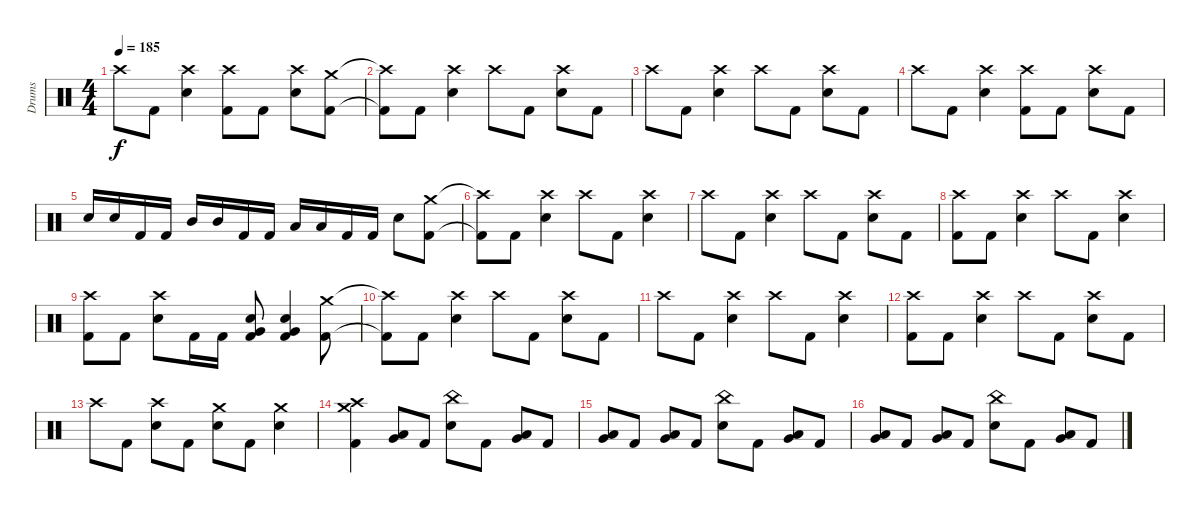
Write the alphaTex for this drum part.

\track ("Drums" "Drums") {instrument percussion}
\staff {score}
\articulation defaults
\ts (4 4)
\tempo 185
\clef neutral
\ks c "Crash high (hit)".8{dy f} "Kick (hit) 2".8
("Crash high (hit)" "Electric Snare (hit)").4 ("Crash high (hit)" "Kick (hit) 2").8 "Kick (hit) 2".8 ("Crash high (hit)" "Electric Snare (hit)").8 ("Crash medium (hit)" "Kick (hit) 2").8 |
("Crash high (hit)"{t} "Kick (hit) 2"{t}).8 "Kick (hit) 2".8 ("Crash high (hit)" "Electric Snare (hit)").4 "Crash high (hit)".8 "Kick (hit) 2".8 ("Crash high (hit)" "Electric Snare (hit)").8 "Kick (hit) 2".8 |
"Crash high (hit)".8 "Kick (hit) 2".8 ("Crash high (hit)" "Electric Snare (hit)").4 "Crash high (hit)".8 "Kick (hit) 2".8 ("Crash high (hit)" "Electric Snare (hit)").8 "Kick (hit) 2".8 |
"Crash high (hit)".8 "Kick (hit) 2".8 ("Crash high (hit)" "Electric Snare (hit)").4 ("Crash high (hit)" "Kick (hit) 2").8 "Kick (hit) 2".8 ("Crash high (hit)" "Electric Snare (hit)").8 "Kick (hit) 2".8 |
"Electric Snare (hit)".16 "Electric Snare (hit)".16 "Kick (hit) 2".16 "Kick (hit) 2".16 "Mid Tom (hit)".16 "Mid Tom (hit)".16 "Kick (hit) 2".16 "Kick (hit) 2".16 "Low Tom (hit)".16 "Low Tom (hit)".16 "Kick (hit) 2".16 "Kick (hit) 2".16 "Electric Snare (hit)".8 ("Crash medium (hit)" "Kick (hit) 2").8 |
("Crash high (hit)"{t} "Kick (hit) 2"{t}).8 "Kick (hit) 2".8 ("Crash high (hit)" "Electric Snare (hit)").4 "Crash high (hit)".8 "Kick (hit) 2".8 ("Crash high (hit)" "Electric Snare (hit)").4 |
"Crash high (hit)".8 "Kick (hit) 2".8 ("Crash high (hit)" "Electric Snare (hit)").4 "Crash high (hit)".8 "Kick (hit) 2".8 ("Crash high (hit)" "Electric Snare (hit)").8 "Kick (hit) 2".8 |
("Crash high (hit)" "Kick (hit) 2").8 "Kick (hit) 2".8 ("Crash high (hit)" "Electric Snare (hit)").4 "Crash high (hit)".8 "Kick (hit) 2".8 ("Crash high (hit)" "Electric Snare (hit)").4 |
("Crash high (hit)" "Kick (hit) 2").8 "Kick (hit) 2".8 ("Crash high (hit)" "Electric Snare (hit)").8 "Kick (hit) 2".16 "Kick (hit) 2".16 ("Very Low Tom (hit)" "Electric Snare (hit)" "Kick (hit) 2").8 ("Very Low Tom (hit)" "Electric Snare (hit)" "Kick (hit) 2").4 ("Crash medium (hit)" "Kick (hit) 2").8 |
("Crash high (hit)"{t} "Kick (hit) 2"{t}).8 "Kick (hit) 2".8 ("Crash high (hit)" "Electric Snare (hit)").4 "Crash high (hit)".8 "Kick (hit) 2".8 ("Crash high (hit)" "Electric Snare (hit)").8 "Kick (hit) 2".8 |
"Crash high (hit)".8 "Kick (hit) 2".8 ("Crash high (hit)" "Electric Snare (hit)").4 "Crash high (hit)".8 "Kick (hit) 2".8 ("Crash high (hit)" "Electric Snare (hit)").4 |
("Crash high (hit)" "Kick (hit) 2").8 "Kick (hit) 2".8 ("Crash high (hit)" "Electric Snare (hit)").4 "Crash high (hit)".8 "Kick (hit) 2".8 ("Crash high (hit)" "Electric Snare (hit)").8 "Kick (hit) 2".8 |
"Crash high (hit)".8 "Kick (hit) 2".8 ("Crash high (hit)" "Electric Snare (hit)").8 "Kick (hit) 2".8 ("Crash medium (hit)" "Electric Snare (hit)").8 "Kick (hit) 2".8 ("Crash medium (hit)" "Electric Snare (hit)").4 |
("Crash high (hit)" "Crash medium (hit)" "Kick (hit) 2").4 ("Very Low Tom (hit)" "Low Tom (hit)").8 "Kick (hit) 2".8 ("China (hit)" "Electric Snare (hit)").8 "Kick (hit) 2".8 ("Very Low Tom (hit)" "Low Tom (hit)").8 "Kick (hit) 2".8 |
("Very Low Tom (hit)" "Low Tom (hit)").8 "Kick (hit) 2".8 ("Very Low Tom (hit)" "Low Tom (hit)").8 "Kick (hit) 2".8 ("China (hit)" "Electric Snare (hit)").8 "Kick (hit) 2".8 ("Very Low Tom (hit)" "Low Tom (hit)").8 "Kick (hit) 2".8 |
("Very Low Tom (hit)" "Low Tom (hit)").8 "Kick (hit) 2".8 ("Very Low Tom (hit)" "Low Tom (hit)").8 "Kick (hit) 2".8 ("China (hit)" "Electric Snare (hit)").8 "Kick (hit) 2".8 ("Very Low Tom (hit)" "Low Tom (hit)").8 "Kick (hit) 2".8
